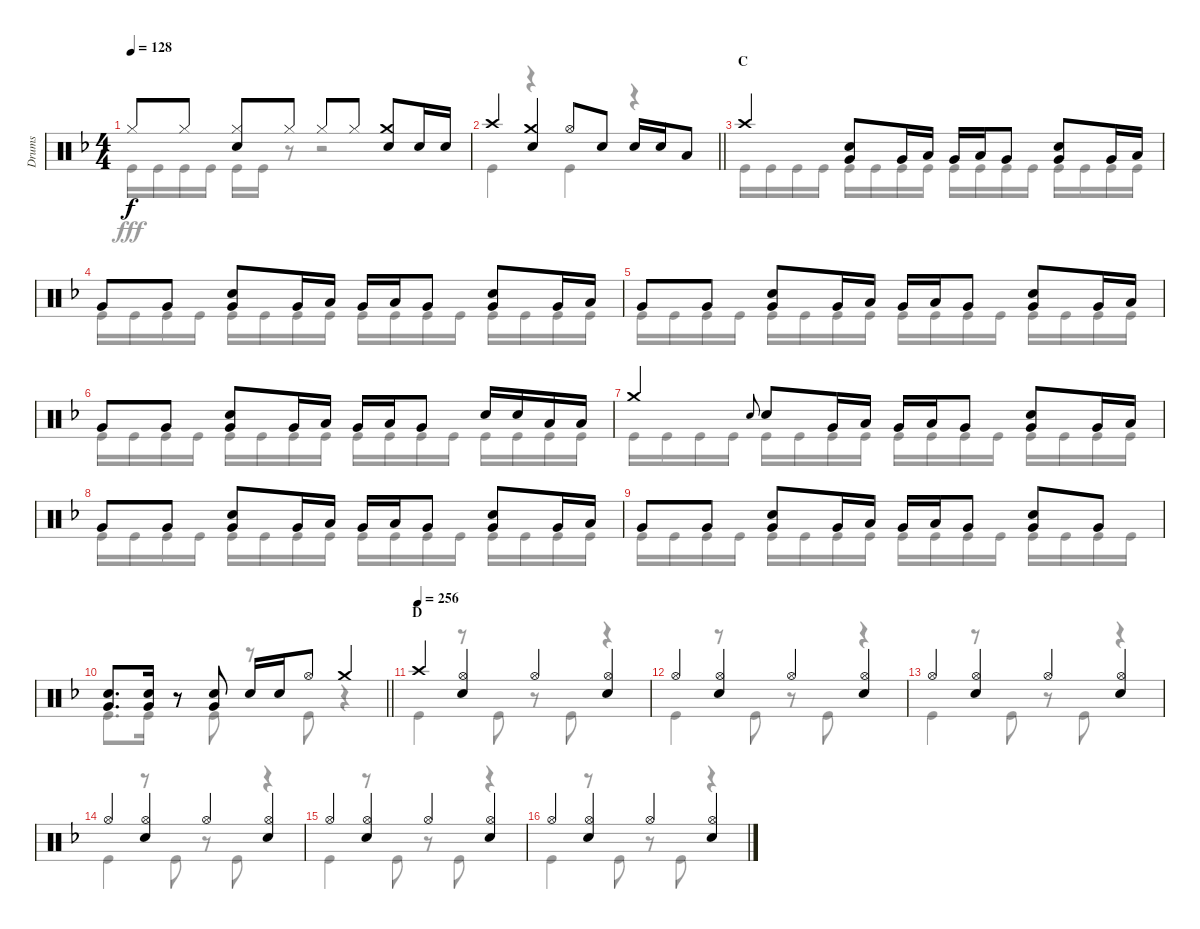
\track ("Drums" "Drums") {instrument percussion}
\staff {score}
\articulation defaults
\voice
\ts (4 4)
\tempo 128
\clef neutral
\ks f "Hi-Hat (closed)".8{dy f} "Hi-Hat (closed)".8
("Hi-Hat (closed)" "Snare (hit) 2").8 "Hi-Hat (closed)".8 "Hi-Hat (closed)".8 "Hi-Hat (closed)".8 ("Crash medium (hit)" "Snare (hit) 2").8 "Snare (hit) 2".16 "Snare (hit) 2".16 |
\barLineRight lightlight "Crash high (hit)".4
("Crash medium (hit)" "Snare (hit) 2").4 "Hi-Hat (open)".8 "Snare (hit) 2".8 "Snare (hit) 2".16 "Snare (hit) 2".16 "Low Tom (hit)".8 |
\section ("" "C")
"Crash high (hit)".4 ("Snare (hit) 2" "Very Low Tom (hit)").8 "Very Low Tom (hit)".16 "Low Tom (hit)".16 "Very Low Tom (hit)".16 "Low Tom (hit)".16 "Very Low Tom (hit)".8 ("Snare (hit) 2" "Very Low Tom (hit)").8 "Very Low Tom (hit)".16 "Low Tom (hit)".16 |
"Very Low Tom (hit)".8 "Very Low Tom (hit)".8 ("Snare (hit) 2" "Very Low Tom (hit)").8 "Very Low Tom (hit)".16 "Low Tom (hit)".16 "Very Low Tom (hit)".16 "Low Tom (hit)".16 "Very Low Tom (hit)".8 ("Snare (hit) 2" "Very Low Tom (hit)").8 "Very Low Tom (hit)".16 "Low Tom (hit)".16 |
"Very Low Tom (hit)".8 "Very Low Tom (hit)".8 ("Snare (hit) 2" "Very Low Tom (hit)").8 "Very Low Tom (hit)".16 "Low Tom (hit)".16 "Very Low Tom (hit)".16 "Low Tom (hit)".16 "Very Low Tom (hit)".8 ("Snare (hit) 2" "Very Low Tom (hit)").8 "Very Low Tom (hit)".16 "Low Tom (hit)".16 |
"Very Low Tom (hit)".8 "Very Low Tom (hit)".8 ("Snare (hit) 2" "Very Low Tom (hit)").8 "Very Low Tom (hit)".16 "Low Tom (hit)".16 "Very Low Tom (hit)".16 "Low Tom (hit)".16 "Very Low Tom (hit)".8 "Snare (hit) 2".16 "Snare (hit) 2".16 "Low Tom (hit)".16 "Low Tom (hit)".16 |
"Crash medium (hit)".4 "Snare (hit) 2".8{gr onbeat} "Snare (hit) 2".8 "Very Low Tom (hit)".16 "Low Tom (hit)".16 "Very Low Tom (hit)".16 "Low Tom (hit)".16 "Very Low Tom (hit)".8 ("Snare (hit) 2" "Very Low Tom (hit)").8 "Very Low Tom (hit)".16 "Low Tom (hit)".16 |
"Very Low Tom (hit)".8 "Very Low Tom (hit)".8 ("Snare (hit) 2" "Very Low Tom (hit)").8 "Very Low Tom (hit)".16 "Low Tom (hit)".16 "Very Low Tom (hit)".16 "Low Tom (hit)".16 "Very Low Tom (hit)".8 ("Snare (hit) 2" "Very Low Tom (hit)").8 "Very Low Tom (hit)".16 "Low Tom (hit)".16 |
"Very Low Tom (hit)".8 "Very Low Tom (hit)".8 ("Snare (hit) 2" "Very Low Tom (hit)").8 "Very Low Tom (hit)".16 "Low Tom (hit)".16 "Very Low Tom (hit)".16 "Low Tom (hit)".16 "Very Low Tom (hit)".8 ("Snare (hit) 2" "Very Low Tom (hit)").8 "Very Low Tom (hit)".8 |
\barLineRight lightlight
("Snare (hit) 2" "Very Low Tom (hit)").8{d} ("Snare (hit) 2" "Very Low Tom (hit)").16 r.8 ("Snare (hit) 2" "Very Low Tom (hit)").8 "Snare (hit) 2".16 "Snare (hit) 2".16 "Hi-Hat (open)".8 "Crash medium (hit)".4 |
\section ("" "D")
\tempo (256)
"Crash high (hit)".4 ("Hi-Hat (open)" "Snare (hit) 2").4 "Hi-Hat (open)".4 ("Hi-Hat (open)" "Snare (hit) 2").4 |
"Hi-Hat (open)".4 ("Hi-Hat (open)" "Snare (hit) 2").4 "Hi-Hat (open)".4 ("Hi-Hat (open)" "Snare (hit) 2").4 |
"Hi-Hat (open)".4 ("Hi-Hat (open)" "Snare (hit) 2").4 "Hi-Hat (open)".4 ("Hi-Hat (open)" "Snare (hit) 2").4 |
"Hi-Hat (open)".4 ("Hi-Hat (open)" "Snare (hit) 2").4 "Hi-Hat (open)".4 ("Hi-Hat (open)" "Snare (hit) 2").4 |
"Hi-Hat (open)".4 ("Hi-Hat (open)" "Snare (hit) 2").4 "Hi-Hat (open)".4 ("Hi-Hat (open)" "Snare (hit) 2").4 |
"Hi-Hat (open)".4 ("Hi-Hat (open)" "Snare (hit) 2").4 "Hi-Hat (open)".4 ("Hi-Hat (open)" "Snare (hit) 2").4
\voice
\clef neutral
\ottava regular
\simile none
\ks f "Kick (hit)".16{dy fff} "Kick (hit)".16 "Kick (hit)".16 "Kick (hit)".16 "Kick (hit)".16 "Kick (hit)".16
r.8 r.2 |
\barLineRight lightlight "Kick (hit)".4
r.4 "Kick (hit)".4 r.4 |
"Kick (hit)".16 "Kick (hit)".16 "Kick (hit)".16 "Kick (hit)".16 "Kick (hit)".16 "Kick (hit)".16 "Kick (hit)".16 "Kick (hit)".16 "Kick (hit)".16 "Kick (hit)".16 "Kick (hit)".16 "Kick (hit)".16 "Kick (hit)".16 "Kick (hit)".16 "Kick (hit)".16 "Kick (hit)".16 |
"Kick (hit)".16 "Kick (hit)".16 "Kick (hit)".16 "Kick (hit)".16 "Kick (hit)".16 "Kick (hit)".16 "Kick (hit)".16 "Kick (hit)".16 "Kick (hit)".16 "Kick (hit)".16 "Kick (hit)".16 "Kick (hit)".16 "Kick (hit)".16 "Kick (hit)".16 "Kick (hit)".16 "Kick (hit)".16 |
"Kick (hit)".16 "Kick (hit)".16 "Kick (hit)".16 "Kick (hit)".16 "Kick (hit)".16 "Kick (hit)".16 "Kick (hit)".16 "Kick (hit)".16 "Kick (hit)".16 "Kick (hit)".16 "Kick (hit)".16 "Kick (hit)".16 "Kick (hit)".16 "Kick (hit)".16 "Kick (hit)".16 "Kick (hit)".16 |
"Kick (hit)".16 "Kick (hit)".16 "Kick (hit)".16 "Kick (hit)".16 "Kick (hit)".16 "Kick (hit)".16 "Kick (hit)".16 "Kick (hit)".16 "Kick (hit)".16 "Kick (hit)".16 "Kick (hit)".16 "Kick (hit)".16 "Kick (hit)".16 "Kick (hit)".16 "Kick (hit)".16 "Kick (hit)".16 |
"Kick (hit)".16 "Kick (hit)".16 "Kick (hit)".16 "Kick (hit)".16 "Kick (hit)".16 "Kick (hit)".16 "Kick (hit)".16 "Kick (hit)".16 "Kick (hit)".16 "Kick (hit)".16 "Kick (hit)".16 "Kick (hit)".16 "Kick (hit)".16 "Kick (hit)".16 "Kick (hit)".16 "Kick (hit)".16 |
"Kick (hit)".16 "Kick (hit)".16 "Kick (hit)".16 "Kick (hit)".16 "Kick (hit)".16 "Kick (hit)".16 "Kick (hit)".16 "Kick (hit)".16 "Kick (hit)".16 "Kick (hit)".16 "Kick (hit)".16 "Kick (hit)".16 "Kick (hit)".16 "Kick (hit)".16 "Kick (hit)".16 "Kick (hit)".16 |
"Kick (hit)".16 "Kick (hit)".16 "Kick (hit)".16 "Kick (hit)".16 "Kick (hit)".16 "Kick (hit)".16 "Kick (hit)".16 "Kick (hit)".16 "Kick (hit)".16 "Kick (hit)".16 "Kick (hit)".16 "Kick (hit)".16 "Kick (hit)".16 "Kick (hit)".16 "Kick (hit)".16 "Kick (hit)".16 |
\barLineRight lightlight "Kick (hit)".8{d} "Kick (hit)".16
r.8 "Kick (hit)".8 r.8 "Kick (hit)".8 r.4 |
"Kick (hit)".4 r.8 "Kick (hit)".8 r.8 "Kick (hit)".8 r.4 |
"Kick (hit)".4 r.8 "Kick (hit)".8 r.8 "Kick (hit)".8 r.4 |
"Kick (hit)".4 r.8 "Kick (hit)".8 r.8 "Kick (hit)".8 r.4 |
"Kick (hit)".4 r.8 "Kick (hit)".8 r.8 "Kick (hit)".8 r.4 |
"Kick (hit)".4 r.8 "Kick (hit)".8 r.8 "Kick (hit)".8 r.4 |
"Kick (hit)".4 r.8 "Kick (hit)".8 r.8 "Kick (hit)".8 r.4
